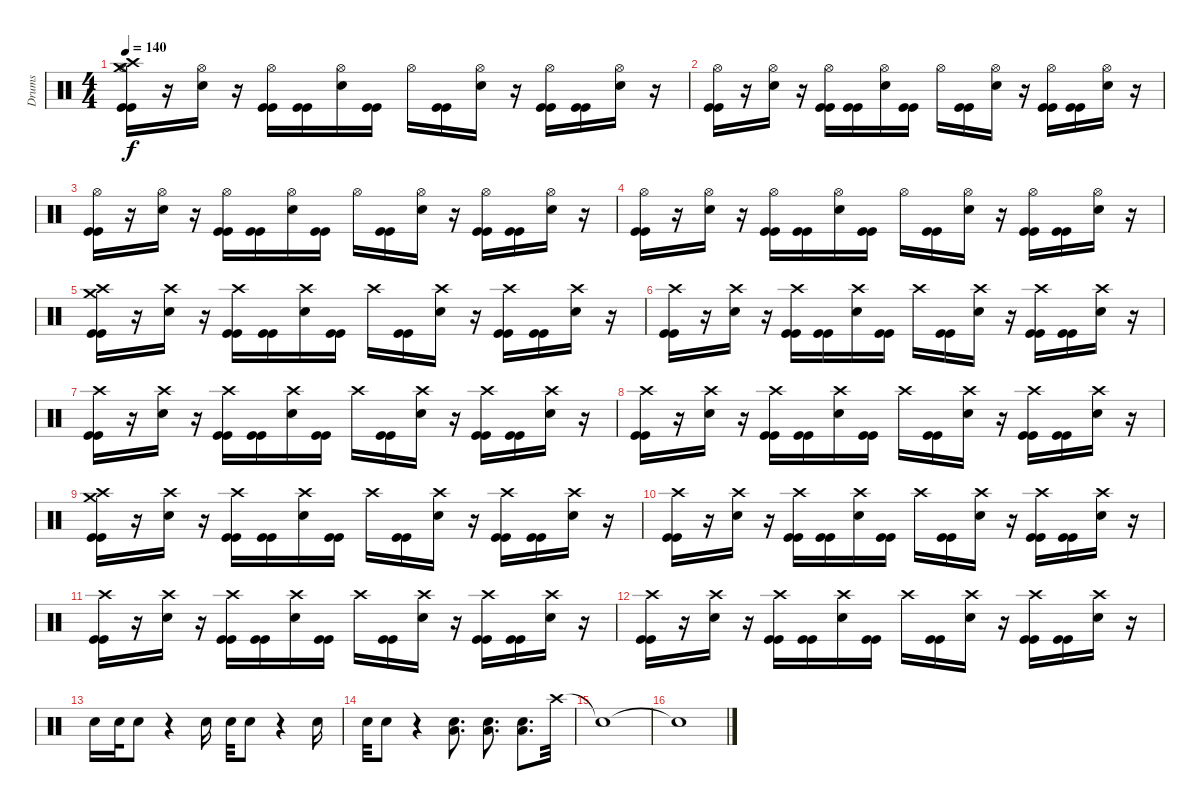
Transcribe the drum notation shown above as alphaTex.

\track ("Drums" "Drums") {instrument percussion}
\staff {score}
\articulation defaults
\ts (4 4)
\tempo 140
\clef neutral
\ks c
("Crash medium (hit)" "Crash high (hit)" "Hi-Hat (open)" "Kick (hit)" "Kick (hit)").16{dy f} r.16 ("Hi-Hat (open)" "Snare (hit) 2").16 r.16 ("Hi-Hat (open)" "Kick (hit)" "Kick (hit)").16 ("Kick (hit)" "Kick (hit)").16 ("Hi-Hat (open)" "Snare (hit) 2").16 ("Kick (hit)" "Kick (hit)").16 "Hi-Hat (open)".16 ("Kick (hit)" "Kick (hit)").16 ("Hi-Hat (open)" "Snare (hit) 2").16 r.16 ("Hi-Hat (open)" "Kick (hit)" "Kick (hit)").16 ("Kick (hit)" "Kick (hit)").16 ("Hi-Hat (open)" "Snare (hit) 2").16 r.16 |
("Hi-Hat (open)" "Kick (hit)" "Kick (hit)").16 r.16 ("Hi-Hat (open)" "Snare (hit) 2").16 r.16 ("Hi-Hat (open)" "Kick (hit)" "Kick (hit)").16 ("Kick (hit)" "Kick (hit)").16 ("Hi-Hat (open)" "Snare (hit) 2").16 ("Kick (hit)" "Kick (hit)").16 "Hi-Hat (open)".16 ("Kick (hit)" "Kick (hit)").16 ("Hi-Hat (open)" "Snare (hit) 2").16 r.16 ("Hi-Hat (open)" "Kick (hit)" "Kick (hit)").16 ("Kick (hit)" "Kick (hit)").16 ("Hi-Hat (open)" "Snare (hit) 2").16 r.16 |
("Hi-Hat (open)" "Kick (hit)" "Kick (hit)").16 r.16 ("Hi-Hat (open)" "Snare (hit) 2").16 r.16 ("Hi-Hat (open)" "Kick (hit)" "Kick (hit)").16 ("Kick (hit)" "Kick (hit)").16 ("Hi-Hat (open)" "Snare (hit) 2").16 ("Kick (hit)" "Kick (hit)").16 "Hi-Hat (open)".16 ("Kick (hit)" "Kick (hit)").16 ("Hi-Hat (open)" "Snare (hit) 2").16 r.16 ("Hi-Hat (open)" "Kick (hit)" "Kick (hit)").16 ("Kick (hit)" "Kick (hit)").16 ("Hi-Hat (open)" "Snare (hit) 2").16 r.16 |
("Hi-Hat (open)" "Kick (hit)" "Kick (hit)").16 r.16 ("Hi-Hat (open)" "Snare (hit) 2").16 r.16 ("Hi-Hat (open)" "Kick (hit)" "Kick (hit)").16 ("Kick (hit)" "Kick (hit)").16 ("Hi-Hat (open)" "Snare (hit) 2").16 ("Kick (hit)" "Kick (hit)").16 "Hi-Hat (open)".16 ("Kick (hit)" "Kick (hit)").16 ("Hi-Hat (open)" "Snare (hit) 2").16 r.16 ("Hi-Hat (open)" "Kick (hit)" "Kick (hit)").16 ("Kick (hit)" "Kick (hit)").16 ("Hi-Hat (open)" "Snare (hit) 2").16 r.16 |
("Crash medium (hit)" "Crash high (hit)" "Kick (hit)" "Kick (hit)").16 r.16 ("Crash high (hit)" "Snare (hit) 2").16 r.16 ("Crash high (hit)" "Kick (hit)" "Kick (hit)").16 ("Kick (hit)" "Kick (hit)").16 ("Crash high (hit)" "Snare (hit) 2").16 ("Kick (hit)" "Kick (hit)").16 "Crash high (hit)".16 ("Kick (hit)" "Kick (hit)").16 ("Crash high (hit)" "Snare (hit) 2").16 r.16 ("Crash high (hit)" "Kick (hit)" "Kick (hit)").16 ("Kick (hit)" "Kick (hit)").16 ("Crash high (hit)" "Snare (hit) 2").16 r.16 |
("Crash high (hit)" "Kick (hit)" "Kick (hit)").16 r.16 ("Crash high (hit)" "Snare (hit) 2").16 r.16 ("Crash high (hit)" "Kick (hit)" "Kick (hit)").16 ("Kick (hit)" "Kick (hit)").16 ("Crash high (hit)" "Snare (hit) 2").16 ("Kick (hit)" "Kick (hit)").16 "Crash high (hit)".16 ("Kick (hit)" "Kick (hit)").16 ("Crash high (hit)" "Snare (hit) 2").16 r.16 ("Crash high (hit)" "Kick (hit)" "Kick (hit)").16 ("Kick (hit)" "Kick (hit)").16 ("Crash high (hit)" "Snare (hit) 2").16 r.16 |
("Crash high (hit)" "Kick (hit)" "Kick (hit)").16 r.16 ("Crash high (hit)" "Snare (hit) 2").16 r.16 ("Crash high (hit)" "Kick (hit)" "Kick (hit)").16 ("Kick (hit)" "Kick (hit)").16 ("Crash high (hit)" "Snare (hit) 2").16 ("Kick (hit)" "Kick (hit)").16 "Crash high (hit)".16 ("Kick (hit)" "Kick (hit)").16 ("Crash high (hit)" "Snare (hit) 2").16 r.16 ("Crash high (hit)" "Kick (hit)" "Kick (hit)").16 ("Kick (hit)" "Kick (hit)").16 ("Crash high (hit)" "Snare (hit) 2").16 r.16 |
("Crash high (hit)" "Kick (hit)" "Kick (hit)").16 r.16 ("Crash high (hit)" "Snare (hit) 2").16 r.16 ("Crash high (hit)" "Kick (hit)" "Kick (hit)").16 ("Kick (hit)" "Kick (hit)").16 ("Crash high (hit)" "Snare (hit) 2").16 ("Kick (hit)" "Kick (hit)").16 "Crash high (hit)".16 ("Kick (hit)" "Kick (hit)").16 ("Crash high (hit)" "Snare (hit) 2").16 r.16 ("Crash high (hit)" "Kick (hit)" "Kick (hit)").16 ("Kick (hit)" "Kick (hit)").16 ("Crash high (hit)" "Snare (hit) 2").16 r.16 |
("Crash medium (hit)" "Crash high (hit)" "Kick (hit)" "Kick (hit)").16 r.16 ("Crash high (hit)" "Snare (hit) 2").16 r.16 ("Crash high (hit)" "Kick (hit)" "Kick (hit)").16 ("Kick (hit)" "Kick (hit)").16 ("Crash high (hit)" "Snare (hit) 2").16 ("Kick (hit)" "Kick (hit)").16 "Crash high (hit)".16 ("Kick (hit)" "Kick (hit)").16 ("Crash high (hit)" "Snare (hit) 2").16 r.16 ("Crash high (hit)" "Kick (hit)" "Kick (hit)").16 ("Kick (hit)" "Kick (hit)").16 ("Crash high (hit)" "Snare (hit) 2").16 r.16 |
("Crash high (hit)" "Kick (hit)" "Kick (hit)").16 r.16 ("Crash high (hit)" "Snare (hit) 2").16 r.16 ("Crash high (hit)" "Kick (hit)" "Kick (hit)").16 ("Kick (hit)" "Kick (hit)").16 ("Crash high (hit)" "Snare (hit) 2").16 ("Kick (hit)" "Kick (hit)").16 "Crash high (hit)".16 ("Kick (hit)" "Kick (hit)").16 ("Crash high (hit)" "Snare (hit) 2").16 r.16 ("Crash high (hit)" "Kick (hit)" "Kick (hit)").16 ("Kick (hit)" "Kick (hit)").16 ("Crash high (hit)" "Snare (hit) 2").16 r.16 |
("Crash high (hit)" "Kick (hit)" "Kick (hit)").16 r.16 ("Crash high (hit)" "Snare (hit) 2").16 r.16 ("Crash high (hit)" "Kick (hit)" "Kick (hit)").16 ("Kick (hit)" "Kick (hit)").16 ("Crash high (hit)" "Snare (hit) 2").16 ("Kick (hit)" "Kick (hit)").16 "Crash high (hit)".16 ("Kick (hit)" "Kick (hit)").16 ("Crash high (hit)" "Snare (hit) 2").16 r.16 ("Crash high (hit)" "Kick (hit)" "Kick (hit)").16 ("Kick (hit)" "Kick (hit)").16 ("Crash high (hit)" "Snare (hit) 2").16 r.16 |
("Crash high (hit)" "Kick (hit)" "Kick (hit)").16 r.16 ("Crash high (hit)" "Snare (hit) 2").16 r.16 ("Crash high (hit)" "Kick (hit)" "Kick (hit)").16 ("Kick (hit)" "Kick (hit)").16 ("Crash high (hit)" "Snare (hit) 2").16 ("Kick (hit)" "Kick (hit)").16 "Crash high (hit)".16 ("Kick (hit)" "Kick (hit)").16 ("Crash high (hit)" "Snare (hit) 2").16 r.16 ("Crash high (hit)" "Kick (hit)" "Kick (hit)").16 ("Kick (hit)" "Kick (hit)").16 ("Crash high (hit)" "Snare (hit) 2").16 r.16 |
"Snare (hit) 2".16 "Snare (hit) 2".32 "Snare (hit) 2".8 r.4 "Snare (hit) 2".16 "Snare (hit) 2".32 "Snare (hit) 2".8 r.4 "Snare (hit) 2".16 |
"Snare (hit) 2".32 "Snare (hit) 2".8 r.4 ("Snare (hit) 2" "Low Floor Tom (hit)").8{d} ("Snare (hit) 2" "Low Floor Tom (hit)").8{d} ("Snare (hit) 2" "Low Floor Tom (hit)").8{d} "Crash high (hit)".32 |
"Snare (hit)"{t}.1 |
"Snare (hit)"{t}.1
